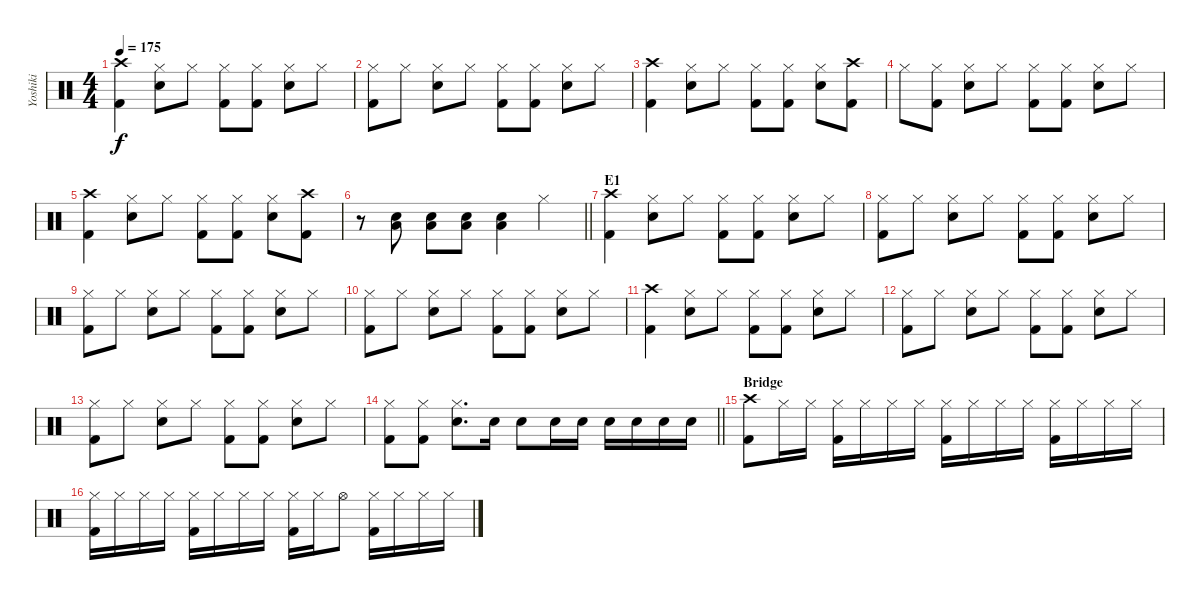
\track ("Yoshiki" "Yoshiki") {instrument percussion}
\staff {score}
\articulation defaults
\ts (4 4)
\tempo 175
\clef neutral
\ks c
("Crash high (hit)" "Kick (hit) 2").4{dy f} ("Hi-Hat (closed)" "Electric Snare (hit)").8 "Hi-Hat (closed)".8 ("Hi-Hat (closed)" "Kick (hit) 2").8 ("Hi-Hat (closed)" "Kick (hit) 2").8 ("Hi-Hat (closed)" "Electric Snare (hit)").8 "Hi-Hat (closed)".8 |
("Hi-Hat (closed)" "Kick (hit) 2").8 "Hi-Hat (closed)".8 ("Hi-Hat (closed)" "Electric Snare (hit)").8 "Hi-Hat (closed)".8 ("Hi-Hat (closed)" "Kick (hit) 2").8 ("Hi-Hat (closed)" "Kick (hit) 2").8 ("Hi-Hat (closed)" "Electric Snare (hit)").8 "Hi-Hat (closed)".8 |
("Crash high (hit)" "Kick (hit) 2").4 ("Hi-Hat (closed)" "Electric Snare (hit)").8 "Hi-Hat (closed)".8 ("Hi-Hat (closed)" "Kick (hit) 2").8 ("Hi-Hat (closed)" "Kick (hit) 2").8 ("Hi-Hat (closed)" "Electric Snare (hit)").8 ("Crash high (hit)" "Kick (hit) 2").8 |
"Hi-Hat (closed)".8 ("Hi-Hat (closed)" "Kick (hit) 2").8 ("Hi-Hat (closed)" "Electric Snare (hit)").8 "Hi-Hat (closed)".8 ("Hi-Hat (closed)" "Kick (hit) 2").8 ("Hi-Hat (closed)" "Kick (hit) 2").8 ("Hi-Hat (closed)" "Electric Snare (hit)").8 "Hi-Hat (closed)".8 |
("Crash high (hit)" "Kick (hit) 2").4 ("Hi-Hat (closed)" "Electric Snare (hit)").8 "Hi-Hat (closed)".8 ("Hi-Hat (closed)" "Kick (hit) 2").8 ("Hi-Hat (closed)" "Kick (hit) 2").8 ("Hi-Hat (closed)" "Electric Snare (hit)").8 ("Crash high (hit)" "Kick (hit) 2").8 |
\barLineRight lightlight
r.8 ("Electric Snare (hit)" "Low Tom (hit)").8 ("Electric Snare (hit)" "Low Tom (hit)").8 ("Electric Snare (hit)" "Low Tom (hit)").8 ("Electric Snare (hit)" "Low Tom (hit)").4 "Hi-Hat (closed)".4 |
\section ("" "E1")
("Crash high (hit)" "Kick (hit) 2").4 ("Hi-Hat (closed)" "Electric Snare (hit)").8 "Hi-Hat (closed)".8 ("Hi-Hat (closed)" "Kick (hit) 2").8 ("Hi-Hat (closed)" "Kick (hit) 2").8 ("Hi-Hat (closed)" "Electric Snare (hit)").8 "Hi-Hat (closed)".8 |
("Hi-Hat (closed)" "Kick (hit) 2").8 "Hi-Hat (closed)".8 ("Hi-Hat (closed)" "Electric Snare (hit)").8 "Hi-Hat (closed)".8 ("Hi-Hat (closed)" "Kick (hit) 2").8 ("Hi-Hat (closed)" "Kick (hit) 2").8 ("Hi-Hat (closed)" "Electric Snare (hit)").8 "Hi-Hat (closed)".8 |
("Hi-Hat (closed)" "Kick (hit) 2").8 "Hi-Hat (closed)".8 ("Hi-Hat (closed)" "Electric Snare (hit)").8 "Hi-Hat (closed)".8 ("Hi-Hat (closed)" "Kick (hit) 2").8 ("Hi-Hat (closed)" "Kick (hit) 2").8 ("Hi-Hat (closed)" "Electric Snare (hit)").8 "Hi-Hat (closed)".8 |
("Hi-Hat (closed)" "Kick (hit) 2").8 "Hi-Hat (closed)".8 ("Hi-Hat (closed)" "Electric Snare (hit)").8 "Hi-Hat (closed)".8 ("Hi-Hat (closed)" "Kick (hit) 2").8 ("Hi-Hat (closed)" "Kick (hit) 2").8 ("Hi-Hat (closed)" "Electric Snare (hit)").8 "Hi-Hat (closed)".8 |
("Crash high (hit)" "Kick (hit) 2").4 ("Hi-Hat (closed)" "Electric Snare (hit)").8 "Hi-Hat (closed)".8 ("Hi-Hat (closed)" "Kick (hit) 2").8 ("Hi-Hat (closed)" "Kick (hit) 2").8 ("Hi-Hat (closed)" "Electric Snare (hit)").8 "Hi-Hat (closed)".8 |
("Hi-Hat (closed)" "Kick (hit) 2").8 "Hi-Hat (closed)".8 ("Hi-Hat (closed)" "Electric Snare (hit)").8 "Hi-Hat (closed)".8 ("Hi-Hat (closed)" "Kick (hit) 2").8 ("Hi-Hat (closed)" "Kick (hit) 2").8 ("Hi-Hat (closed)" "Electric Snare (hit)").8 "Hi-Hat (closed)".8 |
("Hi-Hat (closed)" "Kick (hit) 2").8 "Hi-Hat (closed)".8 ("Hi-Hat (closed)" "Electric Snare (hit)").8 "Hi-Hat (closed)".8 ("Hi-Hat (closed)" "Kick (hit) 2").8 ("Hi-Hat (closed)" "Kick (hit) 2").8 ("Hi-Hat (closed)" "Electric Snare (hit)").8 "Hi-Hat (closed)".8 |
\barLineRight lightlight
("Hi-Hat (closed)" "Kick (hit) 2").8 ("Hi-Hat (closed)" "Kick (hit) 2").8 ("Hi-Hat (closed)" "Electric Snare (hit)").8{d} "Electric Snare (hit)".16 "Electric Snare (hit)".8 "Electric Snare (hit)".16 "Electric Snare (hit)".16 "Electric Snare (hit)".16 "Electric Snare (hit)".16 "Electric Snare (hit)".16 "Electric Snare (hit)".16 |
\section ("" "Bridge")
("Crash high (hit)" "Kick (hit) 2").8 "Hi-Hat (closed)".16 "Hi-Hat (closed)".16 ("Hi-Hat (closed)" "Kick (hit) 2").16 "Hi-Hat (closed)".16 "Hi-Hat (closed)".16 "Hi-Hat (closed)".16 ("Hi-Hat (closed)" "Kick (hit) 2").16 "Hi-Hat (closed)".16 "Hi-Hat (closed)".16 "Hi-Hat (closed)".16 ("Hi-Hat (closed)" "Kick (hit) 2").16 "Hi-Hat (closed)".16 "Hi-Hat (closed)".16 "Hi-Hat (closed)".16 |
("Hi-Hat (closed)" "Kick (hit) 2").16 "Hi-Hat (closed)".16 "Hi-Hat (closed)".16 "Hi-Hat (closed)".16 ("Hi-Hat (closed)" "Kick (hit) 2").16 "Hi-Hat (closed)".16 "Hi-Hat (closed)".16 "Hi-Hat (closed)".16 ("Hi-Hat (closed)" "Kick (hit) 2").16 "Hi-Hat (closed)".16 "Hi-Hat (open)".8 ("Hi-Hat (closed)" "Kick (hit) 2").16 "Hi-Hat (closed)".16 "Hi-Hat (closed)".16 "Hi-Hat (closed)".16
